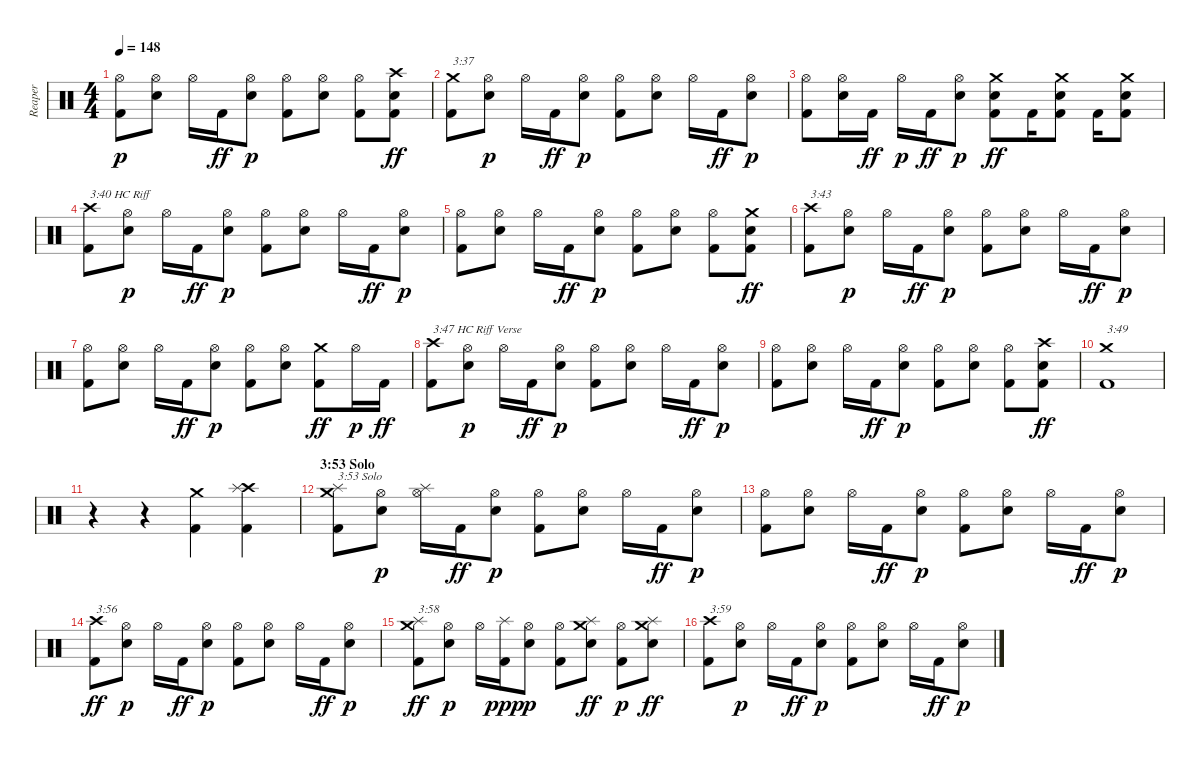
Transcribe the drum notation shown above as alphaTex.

\track ("Reaper" "Reaper") {instrument percussion}
\staff {score}
\articulation defaults
\ts (4 4)
\tempo 148
\clef neutral
\ks c
("Kick (hit) 2" "Hi-Hat (open)").8{dy p} ("Electric Snare (hit)" "Hi-Hat (open)").8 "Hi-Hat (open)".16 "Kick (hit) 2".16{dy ff} ("Electric Snare (hit)" "Hi-Hat (open)").8{dy p} ("Kick (hit) 2" "Hi-Hat (open)").8 ("Electric Snare (hit)" "Hi-Hat (open)").8 ("Kick (hit) 2" "Hi-Hat (open)").8 ("Kick (hit) 2" "Electric Snare (hit)" "Crash high (hit)").8{dy ff} |
("Kick (hit) 2" "Crash medium (hit)").8{txt "3:37"} ("Electric Snare (hit)" "Hi-Hat (open)").8{dy p} "Hi-Hat (open)".16 "Kick (hit) 2".16{dy ff} ("Electric Snare (hit)" "Hi-Hat (open)").8{dy p} ("Kick (hit) 2" "Hi-Hat (open)").8 ("Electric Snare (hit)" "Hi-Hat (open)").8 "Hi-Hat (open)".16 "Kick (hit) 2".16{dy ff} ("Electric Snare (hit)" "Hi-Hat (open)").8{dy p} |
("Kick (hit) 2" "Hi-Hat (open)").8 ("Electric Snare (hit)" "Hi-Hat (open)").16 "Kick (hit) 2".16{dy ff} "Hi-Hat (open)".16{dy p} "Kick (hit) 2".16{dy ff} ("Electric Snare (hit)" "Hi-Hat (open)").8{dy p} ("Kick (hit) 2" "Electric Snare (hit)" "Crash medium (hit)").8{dy ff} "Kick (hit) 2".16 ("Kick (hit) 2" "Electric Snare (hit)" "Crash medium (hit)").8 "Kick (hit) 2".16 ("Kick (hit) 2" "Electric Snare (hit)" "Crash medium (hit)").8 |
("Kick (hit) 2" "Crash high (hit)").8{txt "3:40 HC Riff"} ("Electric Snare (hit)" "Hi-Hat (open)").8{dy p} "Hi-Hat (open)".16 "Kick (hit) 2".16{dy ff} ("Electric Snare (hit)" "Hi-Hat (open)").8{dy p} ("Kick (hit) 2" "Hi-Hat (open)").8 ("Electric Snare (hit)" "Hi-Hat (open)").8 "Hi-Hat (open)".16 "Kick (hit) 2".16{dy ff} ("Electric Snare (hit)" "Hi-Hat (open)").8{dy p} |
("Kick (hit) 2" "Hi-Hat (open)").8 ("Electric Snare (hit)" "Hi-Hat (open)").8 "Hi-Hat (open)".16 "Kick (hit) 2".16{dy ff} ("Electric Snare (hit)" "Hi-Hat (open)").8{dy p} ("Kick (hit) 2" "Hi-Hat (open)").8 ("Electric Snare (hit)" "Hi-Hat (open)").8 ("Kick (hit) 2" "Hi-Hat (open)").8 ("Kick (hit) 2" "Electric Snare (hit)" "Crash medium (hit)").8{dy ff} |
("Kick (hit) 2" "Crash high (hit)").8{txt "3:43"} ("Electric Snare (hit)" "Hi-Hat (open)").8{dy p} "Hi-Hat (open)".16 "Kick (hit) 2".16{dy ff} ("Electric Snare (hit)" "Hi-Hat (open)").8{dy p} ("Kick (hit) 2" "Hi-Hat (open)").8 ("Electric Snare (hit)" "Hi-Hat (open)").8 "Hi-Hat (open)".16 "Kick (hit) 2".16{dy ff} ("Electric Snare (hit)" "Hi-Hat (open)").8{dy p} |
("Kick (hit) 2" "Hi-Hat (open)").8 ("Electric Snare (hit)" "Hi-Hat (open)").8 "Hi-Hat (open)".16 "Kick (hit) 2".16{dy ff} ("Electric Snare (hit)" "Hi-Hat (open)").8{dy p} ("Kick (hit) 2" "Hi-Hat (open)").8 ("Electric Snare (hit)" "Hi-Hat (open)").8 ("Kick (hit) 2" "Crash medium (hit)").8{dy ff} "Hi-Hat (open)".16{dy p} "Kick (hit) 2".16{dy ff} |
("Kick (hit) 2" "Crash high (hit)").8{txt "3:47 HC Riff Verse"} ("Electric Snare (hit)" "Hi-Hat (open)").8{dy p} "Hi-Hat (open)".16 "Kick (hit) 2".16{dy ff} ("Electric Snare (hit)" "Hi-Hat (open)").8{dy p} ("Kick (hit) 2" "Hi-Hat (open)").8 ("Electric Snare (hit)" "Hi-Hat (open)").8 "Hi-Hat (open)".16 "Kick (hit) 2".16{dy ff} ("Electric Snare (hit)" "Hi-Hat (open)").8{dy p} |
("Kick (hit) 2" "Hi-Hat (open)").8 ("Electric Snare (hit)" "Hi-Hat (open)").8 "Hi-Hat (open)".16 "Kick (hit) 2".16{dy ff} ("Electric Snare (hit)" "Hi-Hat (open)").8{dy p} ("Kick (hit) 2" "Hi-Hat (open)").8 ("Electric Snare (hit)" "Hi-Hat (open)").8 ("Kick (hit) 2" "Hi-Hat (open)").8 ("Kick (hit) 2" "Electric Snare (hit)" "Crash high (hit)").8{dy ff} |
("Kick (hit) 2" "Crash medium (hit)").1{txt "3:49"} |
r.4 r.4 ("Kick (hit) 2" "Crash medium (hit)").4 ("Kick (hit) 2" "Crash high (hit)" "Splash (hit)").4 |
\section ("" "3:53 Solo")
("Kick (hit) 2" "Splash (hit)" "Crash medium (hit)").8{txt "3:53 Solo"} ("Electric Snare (hit)" "Hi-Hat (open)").8{dy p} ("Splash (hit)" "Hi-Hat (open)").16 "Kick (hit) 2".16{dy ff} ("Electric Snare (hit)" "Hi-Hat (open)").8{dy p} ("Kick (hit) 2" "Hi-Hat (open)").8 ("Electric Snare (hit)" "Hi-Hat (open)").8 "Hi-Hat (open)".16 "Kick (hit) 2".16{dy ff} ("Electric Snare (hit)" "Hi-Hat (open)").8{dy p} |
("Kick (hit) 2" "Hi-Hat (open)").8 ("Electric Snare (hit)" "Hi-Hat (open)").8 "Hi-Hat (open)".16 "Kick (hit) 2".16{dy ff} ("Electric Snare (hit)" "Hi-Hat (open)").8{dy p} ("Kick (hit) 2" "Hi-Hat (open)").8 ("Electric Snare (hit)" "Hi-Hat (open)").8 "Hi-Hat (open)".16 "Kick (hit) 2".16{dy ff} ("Electric Snare (hit)" "Hi-Hat (open)").8{dy p} |
("Kick (hit) 2" "Crash high (hit)").8{txt "3:56" dy ff} ("Electric Snare (hit)" "Hi-Hat (open)").8{dy p} "Hi-Hat (open)".16 "Kick (hit) 2".16{dy ff} ("Electric Snare (hit)" "Hi-Hat (open)").8{dy p} ("Kick (hit) 2" "Hi-Hat (open)").8 ("Electric Snare (hit)" "Hi-Hat (open)").8 "Hi-Hat (open)".16 "Kick (hit) 2".16{dy ff} ("Electric Snare (hit)" "Hi-Hat (open)").8{dy p} |
("Kick (hit) 2" "Splash (hit)" "Crash medium (hit)").8{txt "3:58" dy ff} ("Electric Snare (hit)" "Hi-Hat (open)").8{dy p} "Hi-Hat (open)".16 ("Kick (hit) 2" "Splash (hit)").16{dy ppp} ("Electric Snare (hit)" "Hi-Hat (open)").8{dy p} ("Kick (hit) 2" "Hi-Hat (open)").8 ("Splash (hit)" "Electric Snare (hit)" "Crash medium (hit)").8{dy ff} ("Kick (hit) 2" "Hi-Hat (open)").8{dy p} ("Splash (hit)" "Electric Snare (hit)" "Crash medium (hit)").8{dy ff} |
("Kick (hit) 2" "Crash high (hit)").8{txt "3:59"} ("Electric Snare (hit)" "Hi-Hat (open)").8{dy p} "Hi-Hat (open)".16 "Kick (hit) 2".16{dy ff} ("Electric Snare (hit)" "Hi-Hat (open)").8{dy p} ("Kick (hit) 2" "Hi-Hat (open)").8 ("Electric Snare (hit)" "Hi-Hat (open)").8 "Hi-Hat (open)".16 "Kick (hit) 2".16{dy ff} ("Electric Snare (hit)" "Hi-Hat (open)").8{dy p}
